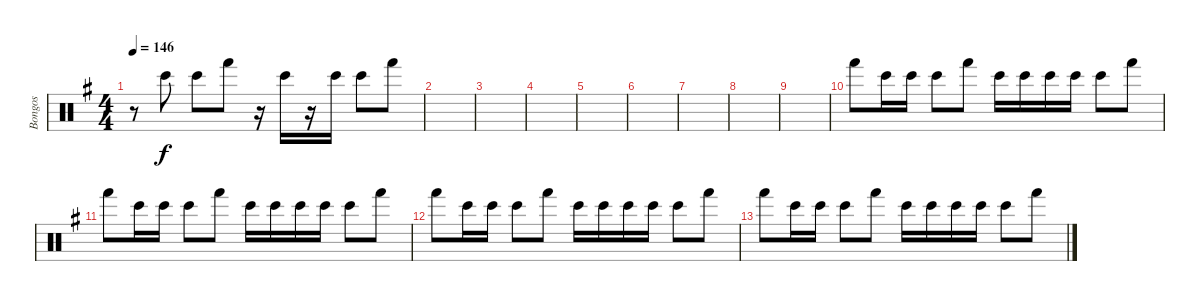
\track ("Bongos" "Bongos") {instrument percussion}
\staff {score}
\articulation defaults
\ts (4 4)
\tempo 146
\clef neutral
\ks g
r.8{dy f} "Bongo High (hit)".8 "Bongo High (hit)".8 "Hand (hit)".8 r.16 "Bongo High (hit)".16 r.16 "Bongo High (hit)".16 "Bongo High (hit)".8 "Hand (hit)".8 |
|
|
|
|
|
|
|
|
"Hand (hit)".8 "Bongo High (hit)".16 "Bongo High (hit)".16 "Bongo High (hit)".8 "Hand (hit)".8 "Bongo High (hit)".16 "Bongo High (hit)".16 "Bongo High (hit)".16 "Bongo High (hit)".16 "Bongo High (hit)".8 "Hand (hit)".8 |
"Hand (hit)".8 "Bongo High (hit)".16 "Bongo High (hit)".16 "Bongo High (hit)".8 "Hand (hit)".8 "Bongo High (hit)".16 "Bongo High (hit)".16 "Bongo High (hit)".16 "Bongo High (hit)".16 "Bongo High (hit)".8 "Hand (hit)".8 |
"Hand (hit)".8 "Bongo High (hit)".16 "Bongo High (hit)".16 "Bongo High (hit)".8 "Hand (hit)".8 "Bongo High (hit)".16 "Bongo High (hit)".16 "Bongo High (hit)".16 "Bongo High (hit)".16 "Bongo High (hit)".8 "Hand (hit)".8 |
"Hand (hit)".8 "Bongo High (hit)".16 "Bongo High (hit)".16 "Bongo High (hit)".8 "Hand (hit)".8 "Bongo High (hit)".16 "Bongo High (hit)".16 "Bongo High (hit)".16 "Bongo High (hit)".16 "Bongo High (hit)".8 "Hand (hit)".8
